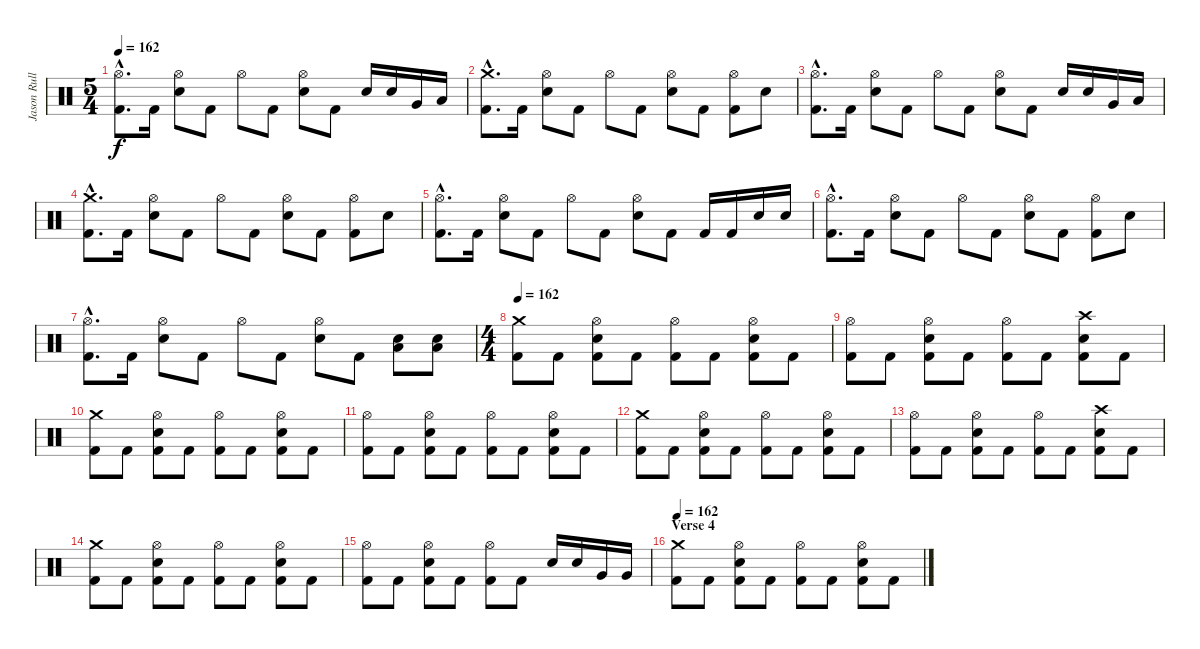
\track ("Jason Rullo" "Jason Rull") {instrument percussion}
\staff {score}
\articulation defaults
\ts (5 4)
\tempo 162
\clef neutral
\ks c
("Hi-Hat (open)"{hac} "Kick (hit) 2"{hac}).8{d dy f} "Kick (hit) 2".16 ("Hi-Hat (open)" "Electric Snare (hit)").8 "Kick (hit) 2".8 "Hi-Hat (open)".8 "Kick (hit) 2".8 ("Hi-Hat (open)" "Electric Snare (hit)").8 "Kick (hit) 2".8 "Electric Snare (hit)".16 "Electric Snare (hit)".16 "Very Low Tom (hit)".16 "Low Floor Tom (hit)".16 |
("Crash medium (hit)"{hac} "Kick (hit) 2"{hac}).8{d} "Kick (hit) 2".16 ("Hi-Hat (open)" "Electric Snare (hit)").8 "Kick (hit) 2".8 "Hi-Hat (open)".8 "Kick (hit) 2".8 ("Hi-Hat (open)" "Electric Snare (hit)").8 "Kick (hit) 2".8 ("Kick (hit) 2" "Hi-Hat (open)").8 "Electric Snare (hit)".8 |
("Hi-Hat (open)"{hac} "Kick (hit) 2"{hac}).8{d} "Kick (hit) 2".16 ("Hi-Hat (open)" "Electric Snare (hit)").8 "Kick (hit) 2".8 "Hi-Hat (open)".8 "Kick (hit) 2".8 ("Hi-Hat (open)" "Electric Snare (hit)").8 "Kick (hit) 2".8 "Electric Snare (hit)".16 "Electric Snare (hit)".16 "Very Low Tom (hit)".16 "Low Floor Tom (hit)".16 |
("Crash medium (hit)"{hac} "Kick (hit) 2"{hac}).8{d} "Kick (hit) 2".16 ("Hi-Hat (open)" "Electric Snare (hit)").8 "Kick (hit) 2".8 "Hi-Hat (open)".8 "Kick (hit) 2".8 ("Hi-Hat (open)" "Electric Snare (hit)").8 "Kick (hit) 2".8 ("Kick (hit) 2" "Hi-Hat (open)").8 "Electric Snare (hit)".8 |
("Hi-Hat (open)"{hac} "Kick (hit) 2"{hac}).8{d} "Kick (hit) 2".16 ("Hi-Hat (open)" "Electric Snare (hit)").8 "Kick (hit) 2".8 "Hi-Hat (open)".8 "Kick (hit) 2".8 ("Hi-Hat (open)" "Electric Snare (hit)").8 "Kick (hit) 2".8 "Kick (hit) 2".16 "Kick (hit) 2".16 "Electric Snare (hit)".16 "Electric Snare (hit)".16 |
("Hi-Hat (open)"{hac} "Kick (hit) 2"{hac}).8{d} "Kick (hit) 2".16 ("Hi-Hat (open)" "Electric Snare (hit)").8 "Kick (hit) 2".8 "Hi-Hat (open)".8 "Kick (hit) 2".8 ("Hi-Hat (open)" "Electric Snare (hit)").8 "Kick (hit) 2".8 ("Kick (hit) 2" "Hi-Hat (open)").8 "Electric Snare (hit)".8 |
("Hi-Hat (open)"{hac} "Kick (hit) 2"{hac}).8{d} "Kick (hit) 2".16 ("Hi-Hat (open)" "Electric Snare (hit)").8 "Kick (hit) 2".8 "Hi-Hat (open)".8 "Kick (hit) 2".8 ("Hi-Hat (open)" "Electric Snare (hit)").8 "Kick (hit) 2".8 ("Electric Snare (hit)" "Low Floor Tom (hit)").8 ("Electric Snare (hit)" "Low Floor Tom (hit)").8 |
\ts (4 4)
\tempo 162
("Crash medium (hit)" "Kick (hit) 2").8 "Kick (hit) 2".8 ("Hi-Hat (open)" "Electric Snare (hit)" "Kick (hit) 2").8 "Kick (hit) 2".8 ("Hi-Hat (open)" "Kick (hit) 2").8 "Kick (hit) 2".8 ("Hi-Hat (open)" "Electric Snare (hit)" "Kick (hit) 2").8 "Kick (hit) 2".8 |
("Hi-Hat (open)" "Kick (hit) 2").8 "Kick (hit) 2".8 ("Hi-Hat (open)" "Electric Snare (hit)" "Kick (hit) 2").8 "Kick (hit) 2".8 ("Hi-Hat (open)" "Kick (hit) 2").8 "Kick (hit) 2".8 ("Crash high (hit)" "Electric Snare (hit)" "Kick (hit) 2").8 "Kick (hit) 2".8 |
("Crash medium (hit)" "Kick (hit) 2").8 "Kick (hit) 2".8 ("Hi-Hat (open)" "Electric Snare (hit)" "Kick (hit) 2").8 "Kick (hit) 2".8 ("Hi-Hat (open)" "Kick (hit) 2").8 "Kick (hit) 2".8 ("Hi-Hat (open)" "Electric Snare (hit)" "Kick (hit) 2").8 "Kick (hit) 2".8 |
("Hi-Hat (open)" "Kick (hit) 2").8 "Kick (hit) 2".8 ("Hi-Hat (open)" "Electric Snare (hit)" "Kick (hit) 2").8 "Kick (hit) 2".8 ("Hi-Hat (open)" "Kick (hit) 2").8 "Kick (hit) 2".8 ("Hi-Hat (open)" "Electric Snare (hit)" "Kick (hit) 2").8 "Kick (hit) 2".8 |
("Crash medium (hit)" "Kick (hit) 2").8 "Kick (hit) 2".8 ("Hi-Hat (open)" "Electric Snare (hit)" "Kick (hit) 2").8 "Kick (hit) 2".8 ("Hi-Hat (open)" "Kick (hit) 2").8 "Kick (hit) 2".8 ("Hi-Hat (open)" "Electric Snare (hit)" "Kick (hit) 2").8 "Kick (hit) 2".8 |
("Hi-Hat (open)" "Kick (hit) 2").8 "Kick (hit) 2".8 ("Hi-Hat (open)" "Electric Snare (hit)" "Kick (hit) 2").8 "Kick (hit) 2".8 ("Hi-Hat (open)" "Kick (hit) 2").8 "Kick (hit) 2".8 ("Crash high (hit)" "Electric Snare (hit)" "Kick (hit) 2").8 "Kick (hit) 2".8 |
("Crash medium (hit)" "Kick (hit) 2").8 "Kick (hit) 2".8 ("Hi-Hat (open)" "Electric Snare (hit)" "Kick (hit) 2").8 "Kick (hit) 2".8 ("Hi-Hat (open)" "Kick (hit) 2").8 "Kick (hit) 2".8 ("Hi-Hat (open)" "Electric Snare (hit)" "Kick (hit) 2").8 "Kick (hit) 2".8 |
("Hi-Hat (open)" "Kick (hit) 2").8 "Kick (hit) 2".8 ("Hi-Hat (open)" "Electric Snare (hit)" "Kick (hit) 2").8 "Kick (hit) 2".8 ("Hi-Hat (open)" "Kick (hit) 2").8 "Kick (hit) 2".8 "Electric Snare (hit)".16 "Electric Snare (hit)".16 "Very Low Tom (hit)".16 "Very Low Tom (hit)".16 |
\section ("" "Verse 4")
\tempo 162
("Crash medium (hit)" "Kick (hit) 2").8 "Kick (hit) 2".8 ("Hi-Hat (open)" "Electric Snare (hit)" "Kick (hit) 2").8 "Kick (hit) 2".8 ("Hi-Hat (open)" "Kick (hit) 2").8 "Kick (hit) 2".8 ("Hi-Hat (open)" "Electric Snare (hit)" "Kick (hit) 2").8 "Kick (hit) 2".8
